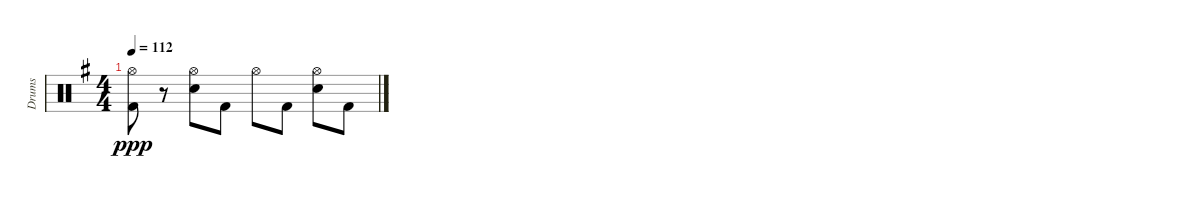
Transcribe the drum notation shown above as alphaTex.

\track ("Drums" "Drums") {instrument percussion}
\staff {score}
\articulation defaults
\ts (4 4)
\tempo 112
\clef neutral
\ks eminor
("Hi-Hat (open)" "Kick (hit) 2").8{dy ppp} r.8 ("Hi-Hat (open)" "Electric Snare (hit)").8 "Kick (hit) 2".8 "Hi-Hat (open)".8 "Kick (hit) 2".8 ("Hi-Hat (open)" "Electric Snare (hit)").8 "Kick (hit) 2".8
